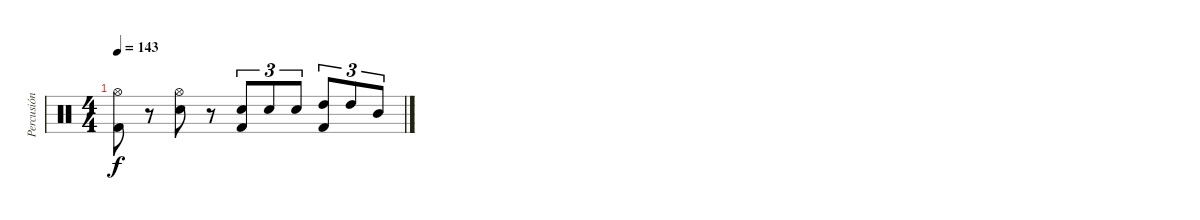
\track ("Percusión" "Percusión") {instrument percussion}
\staff {score}
\articulation defaults
\ts (4 4)
\tempo 143
\clef neutral
\ks c
("Hi-Hat (open)" "Kick (hit) 2").8{dy f} r.8 ("Hi-Hat (open)" "Electric Snare (hit)").8 r.8 ("Electric Snare (hit)" "Kick (hit) 2").8{tu (3 2)} "Electric Snare (hit)".8{tu (3 2)} "Electric Snare (hit)".8{tu (3 2)} ("High Tom (hit)" "Kick (hit) 2").8{tu (3 2)} "High Tom (hit)".8{tu (3 2)} "Mid Tom (hit)".8{tu (3 2)}
